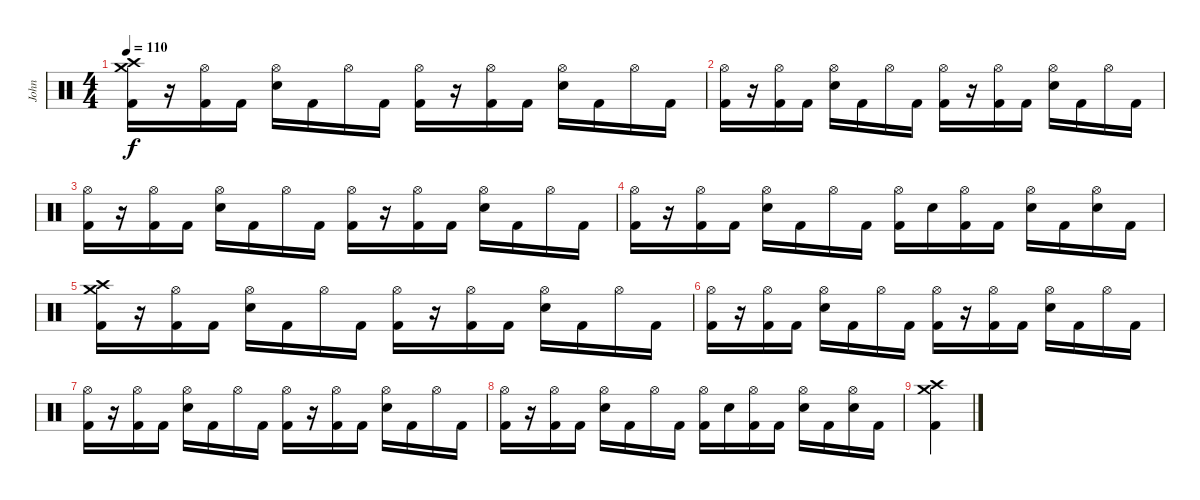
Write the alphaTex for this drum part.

\track ("John" "John") {instrument percussion}
\staff {score}
\articulation defaults
\ts (4 4)
\tempo 110
\clef neutral
\ks c
("Crash medium (hit)" "Crash high (hit)" "Kick (hit) 2").16{dy f} r.16 ("Hi-Hat (open)" "Kick (hit) 2").16 "Kick (hit) 2".16 ("Hi-Hat (open)" "Electric Snare (hit)").16 "Kick (hit) 2".16 "Hi-Hat (open)".16 "Kick (hit) 2".16 ("Hi-Hat (open)" "Kick (hit) 2").16 r.16 ("Hi-Hat (open)" "Kick (hit) 2").16 "Kick (hit) 2".16 ("Hi-Hat (open)" "Electric Snare (hit)").16 "Kick (hit) 2".16 "Hi-Hat (open)".16 "Kick (hit) 2".16 |
("Hi-Hat (open)" "Kick (hit) 2").16 r.16 ("Hi-Hat (open)" "Kick (hit) 2").16 "Kick (hit) 2".16 ("Hi-Hat (open)" "Electric Snare (hit)").16 "Kick (hit) 2".16 "Hi-Hat (open)".16 "Kick (hit) 2".16 ("Hi-Hat (open)" "Kick (hit) 2").16 r.16 ("Hi-Hat (open)" "Kick (hit) 2").16 "Kick (hit) 2".16 ("Hi-Hat (open)" "Electric Snare (hit)").16 "Kick (hit) 2".16 "Hi-Hat (open)".16 "Kick (hit) 2".16 |
("Hi-Hat (open)" "Kick (hit) 2").16 r.16 ("Hi-Hat (open)" "Kick (hit) 2").16 "Kick (hit) 2".16 ("Hi-Hat (open)" "Electric Snare (hit)").16 "Kick (hit) 2".16 "Hi-Hat (open)".16 "Kick (hit) 2".16 ("Hi-Hat (open)" "Kick (hit) 2").16 r.16 ("Hi-Hat (open)" "Kick (hit) 2").16 "Kick (hit) 2".16 ("Hi-Hat (open)" "Electric Snare (hit)").16 "Kick (hit) 2".16 "Hi-Hat (open)".16 "Kick (hit) 2".16 |
("Hi-Hat (open)" "Kick (hit) 2").16 r.16 ("Hi-Hat (open)" "Kick (hit) 2").16 "Kick (hit) 2".16 ("Hi-Hat (open)" "Electric Snare (hit)").16 "Kick (hit) 2".16 "Hi-Hat (open)".16 "Kick (hit) 2".16 ("Hi-Hat (open)" "Kick (hit) 2").16 "Electric Snare (hit)".16 ("Hi-Hat (open)" "Kick (hit) 2").16 "Kick (hit) 2".16 ("Hi-Hat (open)" "Electric Snare (hit)").16 "Kick (hit) 2".16 ("Hi-Hat (open)" "Electric Snare (hit)").16 "Kick (hit) 2".16 |
("Crash medium (hit)" "Crash high (hit)" "Kick (hit) 2").16 r.16 ("Hi-Hat (open)" "Kick (hit) 2").16 "Kick (hit) 2".16 ("Hi-Hat (open)" "Electric Snare (hit)").16 "Kick (hit) 2".16 "Hi-Hat (open)".16 "Kick (hit) 2".16 ("Hi-Hat (open)" "Kick (hit) 2").16 r.16 ("Hi-Hat (open)" "Kick (hit) 2").16 "Kick (hit) 2".16 ("Hi-Hat (open)" "Electric Snare (hit)").16 "Kick (hit) 2".16 "Hi-Hat (open)".16 "Kick (hit) 2".16 |
("Hi-Hat (open)" "Kick (hit) 2").16 r.16 ("Hi-Hat (open)" "Kick (hit) 2").16 "Kick (hit) 2".16 ("Hi-Hat (open)" "Electric Snare (hit)").16 "Kick (hit) 2".16 "Hi-Hat (open)".16 "Kick (hit) 2".16 ("Hi-Hat (open)" "Kick (hit) 2").16 r.16 ("Hi-Hat (open)" "Kick (hit) 2").16 "Kick (hit) 2".16 ("Hi-Hat (open)" "Electric Snare (hit)").16 "Kick (hit) 2".16 "Hi-Hat (open)".16 "Kick (hit) 2".16 |
("Hi-Hat (open)" "Kick (hit) 2").16 r.16 ("Hi-Hat (open)" "Kick (hit) 2").16 "Kick (hit) 2".16 ("Hi-Hat (open)" "Electric Snare (hit)").16 "Kick (hit) 2".16 "Hi-Hat (open)".16 "Kick (hit) 2".16 ("Hi-Hat (open)" "Kick (hit) 2").16 r.16 ("Hi-Hat (open)" "Kick (hit) 2").16 "Kick (hit) 2".16 ("Hi-Hat (open)" "Electric Snare (hit)").16 "Kick (hit) 2".16 "Hi-Hat (open)".16 "Kick (hit) 2".16 |
("Hi-Hat (open)" "Kick (hit) 2").16 r.16 ("Hi-Hat (open)" "Kick (hit) 2").16 "Kick (hit) 2".16 ("Hi-Hat (open)" "Electric Snare (hit)").16 "Kick (hit) 2".16 "Hi-Hat (open)".16 "Kick (hit) 2".16 ("Hi-Hat (open)" "Kick (hit) 2").16 "Electric Snare (hit)".16 ("Hi-Hat (open)" "Kick (hit) 2").16 "Kick (hit) 2".16 ("Hi-Hat (open)" "Electric Snare (hit)").16 "Kick (hit) 2".16 ("Hi-Hat (open)" "Electric Snare (hit)").16 "Kick (hit) 2".16 |
("Crash medium (hit)" "Crash high (hit)" "Kick (hit) 2").4
